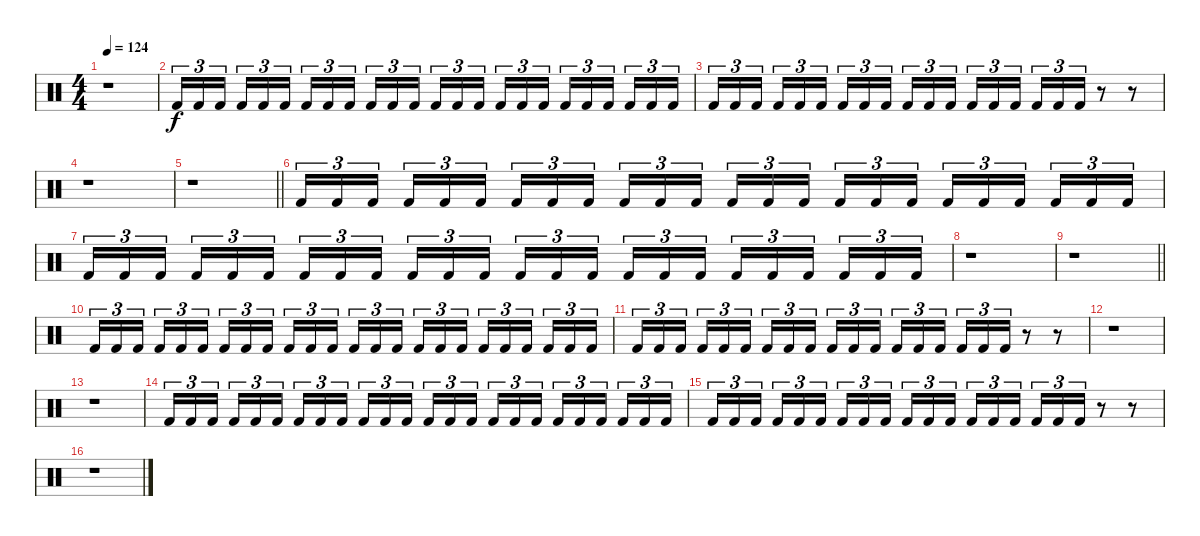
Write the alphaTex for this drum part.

\track "" {instrument percussion}
\staff {score}
\articulation defaults
\ts (4 4)
\tempo 124
\clef neutral
\ks c
r.1{dy f} |
"Kick (hit) 2".16{tu (3 2)} "Kick (hit) 2".16{tu (3 2)} "Kick (hit) 2".16{tu (3 2) beam splitsecondary} "Kick (hit) 2".16{tu (3 2)} "Kick (hit) 2".16{tu (3 2)} "Kick (hit) 2".16{tu (3 2)} "Kick (hit) 2".16{tu (3 2)} "Kick (hit) 2".16{tu (3 2)} "Kick (hit) 2".16{tu (3 2) beam splitsecondary} "Kick (hit) 2".16{tu (3 2)} "Kick (hit) 2".16{tu (3 2)} "Kick (hit) 2".16{tu (3 2)} "Kick (hit) 2".16{tu (3 2)} "Kick (hit) 2".16{tu (3 2)} "Kick (hit) 2".16{tu (3 2) beam splitsecondary} "Kick (hit) 2".16{tu (3 2)} "Kick (hit) 2".16{tu (3 2)} "Kick (hit) 2".16{tu (3 2)} "Kick (hit) 2".16{tu (3 2)} "Kick (hit) 2".16{tu (3 2)} "Kick (hit) 2".16{tu (3 2) beam splitsecondary} "Kick (hit) 2".16{tu (3 2)} "Kick (hit) 2".16{tu (3 2)} "Kick (hit) 2".16{tu (3 2)} |
"Kick (hit) 2".16{tu (3 2)} "Kick (hit) 2".16{tu (3 2)} "Kick (hit) 2".16{tu (3 2) beam splitsecondary} "Kick (hit) 2".16{tu (3 2)} "Kick (hit) 2".16{tu (3 2)} "Kick (hit) 2".16{tu (3 2)} "Kick (hit) 2".16{tu (3 2)} "Kick (hit) 2".16{tu (3 2)} "Kick (hit) 2".16{tu (3 2) beam splitsecondary} "Kick (hit) 2".16{tu (3 2)} "Kick (hit) 2".16{tu (3 2)} "Kick (hit) 2".16{tu (3 2)} "Kick (hit) 2".16{tu (3 2)} "Kick (hit) 2".16{tu (3 2)} "Kick (hit) 2".16{tu (3 2) beam splitsecondary} "Kick (hit) 2".16{tu (3 2)} "Kick (hit) 2".16{tu (3 2)} "Kick (hit) 2".16{tu (3 2)} r.8 r.8 |
r.1 |
\barLineRight lightlight
r.1 |
"Kick (hit) 2".16{tu (3 2)} "Kick (hit) 2".16{tu (3 2)} "Kick (hit) 2".16{tu (3 2) beam splitsecondary} "Kick (hit) 2".16{tu (3 2)} "Kick (hit) 2".16{tu (3 2)} "Kick (hit) 2".16{tu (3 2)} "Kick (hit) 2".16{tu (3 2)} "Kick (hit) 2".16{tu (3 2)} "Kick (hit) 2".16{tu (3 2) beam splitsecondary} "Kick (hit) 2".16{tu (3 2)} "Kick (hit) 2".16{tu (3 2)} "Kick (hit) 2".16{tu (3 2)} "Kick (hit) 2".16{tu (3 2)} "Kick (hit) 2".16{tu (3 2)} "Kick (hit) 2".16{tu (3 2) beam splitsecondary} "Kick (hit) 2".16{tu (3 2)} "Kick (hit) 2".16{tu (3 2)} "Kick (hit) 2".16{tu (3 2)} "Kick (hit) 2".16{tu (3 2)} "Kick (hit) 2".16{tu (3 2)} "Kick (hit) 2".16{tu (3 2) beam splitsecondary} "Kick (hit) 2".16{tu (3 2)} "Kick (hit) 2".16{tu (3 2)} "Kick (hit) 2".16{tu (3 2)} |
"Kick (hit) 2".16{tu (3 2)} "Kick (hit) 2".16{tu (3 2)} "Kick (hit) 2".16{tu (3 2) beam splitsecondary} "Kick (hit) 2".16{tu (3 2)} "Kick (hit) 2".16{tu (3 2)} "Kick (hit) 2".16{tu (3 2)} "Kick (hit) 2".16{tu (3 2)} "Kick (hit) 2".16{tu (3 2)} "Kick (hit) 2".16{tu (3 2) beam splitsecondary} "Kick (hit) 2".16{tu (3 2)} "Kick (hit) 2".16{tu (3 2)} "Kick (hit) 2".16{tu (3 2)} "Kick (hit) 2".16{tu (3 2)} "Kick (hit) 2".16{tu (3 2)} "Kick (hit) 2".16{tu (3 2) beam splitsecondary} "Kick (hit) 2".16{tu (3 2)} "Kick (hit) 2".16{tu (3 2)} "Kick (hit) 2".16{tu (3 2)} "Kick (hit) 2".16{tu (3 2)} "Kick (hit) 2".16{tu (3 2)} "Kick (hit) 2".16{tu (3 2) beam splitsecondary} "Kick (hit) 2".16{tu (3 2)} "Kick (hit) 2".16{tu (3 2)} "Kick (hit) 2".16{tu (3 2)} |
r.1 |
\barLineRight lightlight
r.1 |
"Kick (hit) 2".16{tu (3 2)} "Kick (hit) 2".16{tu (3 2)} "Kick (hit) 2".16{tu (3 2) beam splitsecondary} "Kick (hit) 2".16{tu (3 2)} "Kick (hit) 2".16{tu (3 2)} "Kick (hit) 2".16{tu (3 2)} "Kick (hit) 2".16{tu (3 2)} "Kick (hit) 2".16{tu (3 2)} "Kick (hit) 2".16{tu (3 2) beam splitsecondary} "Kick (hit) 2".16{tu (3 2)} "Kick (hit) 2".16{tu (3 2)} "Kick (hit) 2".16{tu (3 2)} "Kick (hit) 2".16{tu (3 2)} "Kick (hit) 2".16{tu (3 2)} "Kick (hit) 2".16{tu (3 2) beam splitsecondary} "Kick (hit) 2".16{tu (3 2)} "Kick (hit) 2".16{tu (3 2)} "Kick (hit) 2".16{tu (3 2)} "Kick (hit) 2".16{tu (3 2)} "Kick (hit) 2".16{tu (3 2)} "Kick (hit) 2".16{tu (3 2) beam splitsecondary} "Kick (hit) 2".16{tu (3 2)} "Kick (hit) 2".16{tu (3 2)} "Kick (hit) 2".16{tu (3 2)} |
"Kick (hit) 2".16{tu (3 2)} "Kick (hit) 2".16{tu (3 2)} "Kick (hit) 2".16{tu (3 2) beam splitsecondary} "Kick (hit) 2".16{tu (3 2)} "Kick (hit) 2".16{tu (3 2)} "Kick (hit) 2".16{tu (3 2)} "Kick (hit) 2".16{tu (3 2)} "Kick (hit) 2".16{tu (3 2)} "Kick (hit) 2".16{tu (3 2) beam splitsecondary} "Kick (hit) 2".16{tu (3 2)} "Kick (hit) 2".16{tu (3 2)} "Kick (hit) 2".16{tu (3 2)} "Kick (hit) 2".16{tu (3 2)} "Kick (hit) 2".16{tu (3 2)} "Kick (hit) 2".16{tu (3 2) beam splitsecondary} "Kick (hit) 2".16{tu (3 2)} "Kick (hit) 2".16{tu (3 2)} "Kick (hit) 2".16{tu (3 2)} r.8 r.8 |
r.1 |
r.1 |
"Kick (hit) 2".16{tu (3 2)} "Kick (hit) 2".16{tu (3 2)} "Kick (hit) 2".16{tu (3 2) beam splitsecondary} "Kick (hit) 2".16{tu (3 2)} "Kick (hit) 2".16{tu (3 2)} "Kick (hit) 2".16{tu (3 2)} "Kick (hit) 2".16{tu (3 2)} "Kick (hit) 2".16{tu (3 2)} "Kick (hit) 2".16{tu (3 2) beam splitsecondary} "Kick (hit) 2".16{tu (3 2)} "Kick (hit) 2".16{tu (3 2)} "Kick (hit) 2".16{tu (3 2)} "Kick (hit) 2".16{tu (3 2)} "Kick (hit) 2".16{tu (3 2)} "Kick (hit) 2".16{tu (3 2) beam splitsecondary} "Kick (hit) 2".16{tu (3 2)} "Kick (hit) 2".16{tu (3 2)} "Kick (hit) 2".16{tu (3 2)} "Kick (hit) 2".16{tu (3 2)} "Kick (hit) 2".16{tu (3 2)} "Kick (hit) 2".16{tu (3 2) beam splitsecondary} "Kick (hit) 2".16{tu (3 2)} "Kick (hit) 2".16{tu (3 2)} "Kick (hit) 2".16{tu (3 2)} |
"Kick (hit) 2".16{tu (3 2)} "Kick (hit) 2".16{tu (3 2)} "Kick (hit) 2".16{tu (3 2) beam splitsecondary} "Kick (hit) 2".16{tu (3 2)} "Kick (hit) 2".16{tu (3 2)} "Kick (hit) 2".16{tu (3 2)} "Kick (hit) 2".16{tu (3 2)} "Kick (hit) 2".16{tu (3 2)} "Kick (hit) 2".16{tu (3 2) beam splitsecondary} "Kick (hit) 2".16{tu (3 2)} "Kick (hit) 2".16{tu (3 2)} "Kick (hit) 2".16{tu (3 2)} "Kick (hit) 2".16{tu (3 2)} "Kick (hit) 2".16{tu (3 2)} "Kick (hit) 2".16{tu (3 2) beam splitsecondary} "Kick (hit) 2".16{tu (3 2)} "Kick (hit) 2".16{tu (3 2)} "Kick (hit) 2".16{tu (3 2)} r.8 r.8 |
r.1
